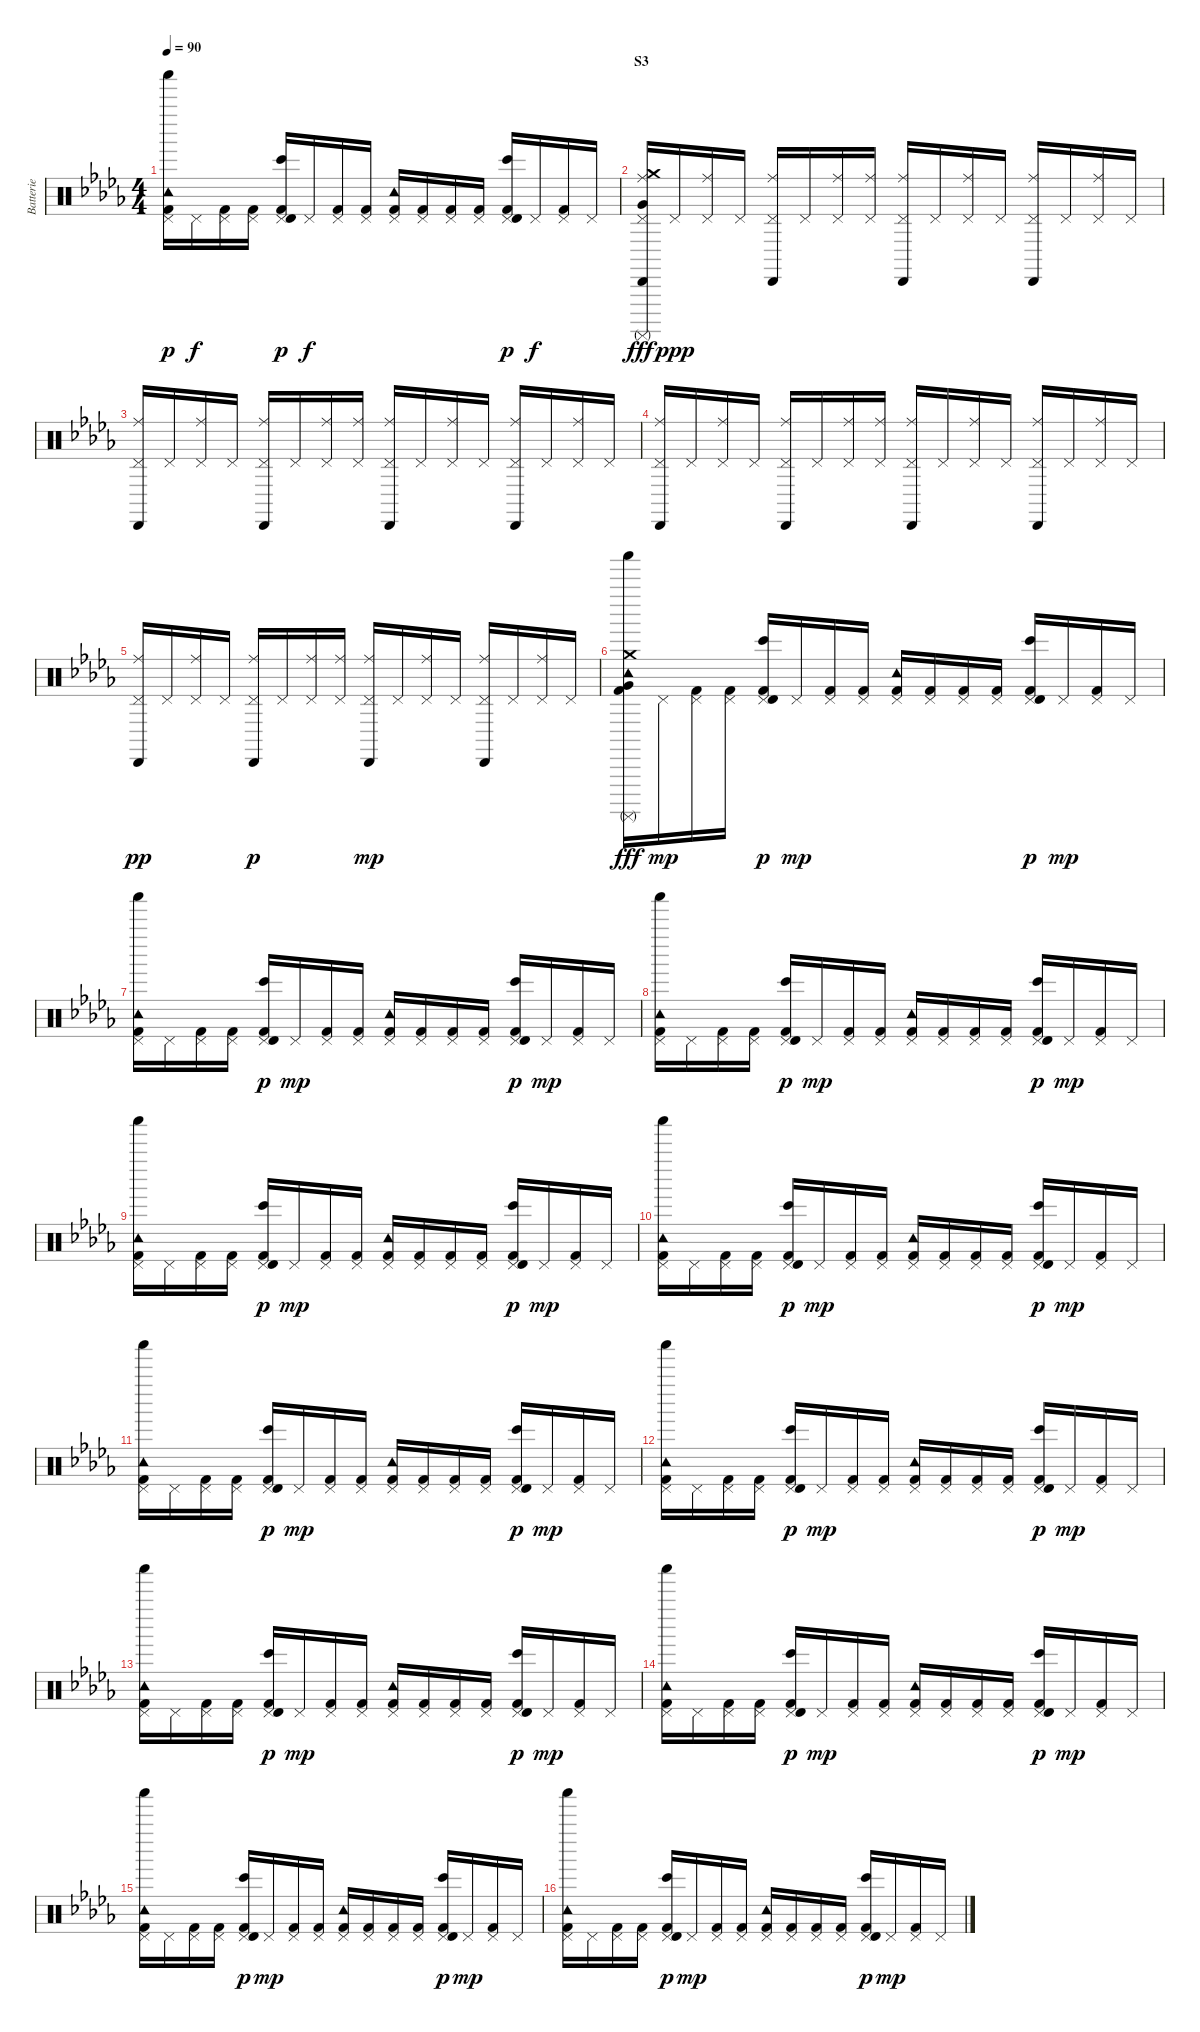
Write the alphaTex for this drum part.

\track ("Batterie" "Batterie") {instrument percussion}
\staff {score}
\articulation defaults
\ts (4 4)
\tempo 90
\clef neutral
\ks db
("Shaker (hit)" "Tambourine (hit)" "Pedal Hi-Hat (hit)" "Kick (hit) 2").16{dy p} "Pedal Hi-Hat (hit)".16{dy f} ("Pedal Hi-Hat (hit)" "Kick (hit) 2").16 ("Pedal Hi-Hat (hit)" "Kick (hit) 2").16 ("Pedal Hi-Hat (hit)" "Bongo High (hit)" "Timbale high (hit)" "Kick (hit) 2").16{dy p} "Pedal Hi-Hat (hit)".16{dy f} ("Pedal Hi-Hat (hit)" "Kick (hit) 2").16 ("Pedal Hi-Hat (hit)" "Kick (hit) 2").16 ("Tambourine (hit)" "Pedal Hi-Hat (hit)" "Kick (hit) 2").16 ("Pedal Hi-Hat (hit)" "Kick (hit) 2").16 ("Pedal Hi-Hat (hit)" "Kick (hit) 2").16 ("Pedal Hi-Hat (hit)" "Kick (hit) 2").16 ("Pedal Hi-Hat (hit)" "Bongo High (hit)" "Timbale high (hit)" "Kick (hit) 2").16{dy p} "Pedal Hi-Hat (hit)".16{dy f} ("Pedal Hi-Hat (hit)" "Kick (hit) 2").16 "Pedal Hi-Hat (hit)".16 |
\section ("" "S3")
("Crash medium (hit)" "Ride (middle)" "Cabasa (hit)" "Pedal Hi-Hat (hit)" "Surdo (mute)" "Very Low Tom (hit)").16{dy fff} "Pedal Hi-Hat (hit)".16{dy ppp} ("Ride (middle)" "Pedal Hi-Hat (hit)").16 "Pedal Hi-Hat (hit)".16 ("Ride (middle)" "Cabasa (hit)" "Pedal Hi-Hat (hit)").16 "Pedal Hi-Hat (hit)".16 ("Ride (middle)" "Pedal Hi-Hat (hit)").16 ("Ride (middle)" "Pedal Hi-Hat (hit)").16 ("Ride (middle)" "Cabasa (hit)" "Pedal Hi-Hat (hit)").16 "Pedal Hi-Hat (hit)".16 ("Ride (middle)" "Pedal Hi-Hat (hit)").16 "Pedal Hi-Hat (hit)".16 ("Ride (middle)" "Cabasa (hit)" "Pedal Hi-Hat (hit)").16 "Pedal Hi-Hat (hit)".16 ("Ride (middle)" "Pedal Hi-Hat (hit)").16 "Pedal Hi-Hat (hit)".16 |
("Ride (middle)" "Cabasa (hit)" "Pedal Hi-Hat (hit)").16 "Pedal Hi-Hat (hit)".16 ("Ride (middle)" "Pedal Hi-Hat (hit)").16 "Pedal Hi-Hat (hit)".16 ("Ride (middle)" "Cabasa (hit)" "Pedal Hi-Hat (hit)").16 "Pedal Hi-Hat (hit)".16 ("Ride (middle)" "Pedal Hi-Hat (hit)").16 ("Ride (middle)" "Pedal Hi-Hat (hit)").16 ("Ride (middle)" "Cabasa (hit)" "Pedal Hi-Hat (hit)").16 "Pedal Hi-Hat (hit)".16 ("Ride (middle)" "Pedal Hi-Hat (hit)").16 "Pedal Hi-Hat (hit)".16 ("Ride (middle)" "Cabasa (hit)" "Pedal Hi-Hat (hit)").16 "Pedal Hi-Hat (hit)".16 ("Ride (middle)" "Pedal Hi-Hat (hit)").16 "Pedal Hi-Hat (hit)".16 |
("Ride (middle)" "Cabasa (hit)" "Pedal Hi-Hat (hit)").16 "Pedal Hi-Hat (hit)".16 ("Ride (middle)" "Pedal Hi-Hat (hit)").16 "Pedal Hi-Hat (hit)".16 ("Ride (middle)" "Cabasa (hit)" "Pedal Hi-Hat (hit)").16 "Pedal Hi-Hat (hit)".16 ("Ride (middle)" "Pedal Hi-Hat (hit)").16 ("Ride (middle)" "Pedal Hi-Hat (hit)").16 ("Ride (middle)" "Cabasa (hit)" "Pedal Hi-Hat (hit)").16 "Pedal Hi-Hat (hit)".16 ("Ride (middle)" "Pedal Hi-Hat (hit)").16 "Pedal Hi-Hat (hit)".16 ("Ride (middle)" "Cabasa (hit)" "Pedal Hi-Hat (hit)").16 "Pedal Hi-Hat (hit)".16 ("Ride (middle)" "Pedal Hi-Hat (hit)").16 "Pedal Hi-Hat (hit)".16 |
("Ride (middle)" "Cabasa (hit)" "Pedal Hi-Hat (hit)").16{dy pp} "Pedal Hi-Hat (hit)".16 ("Ride (middle)" "Pedal Hi-Hat (hit)").16 "Pedal Hi-Hat (hit)".16 ("Ride (middle)" "Cabasa (hit)" "Pedal Hi-Hat (hit)").16{dy p} "Pedal Hi-Hat (hit)".16 ("Ride (middle)" "Pedal Hi-Hat (hit)").16 ("Ride (middle)" "Pedal Hi-Hat (hit)").16 ("Ride (middle)" "Cabasa (hit)" "Pedal Hi-Hat (hit)").16{dy mp} "Pedal Hi-Hat (hit)".16 ("Ride (middle)" "Pedal Hi-Hat (hit)").16 "Pedal Hi-Hat (hit)".16 ("Ride (middle)" "Cabasa (hit)" "Pedal Hi-Hat (hit)").16 "Pedal Hi-Hat (hit)".16 ("Ride (middle)" "Pedal Hi-Hat (hit)").16 "Pedal Hi-Hat (hit)".16 |
("Crash medium (hit)" "Tambourine (hit)" "Shaker (hit)" "Surdo (mute)" "Kick (hit) 2" "Very Low Tom (hit)").16{dy fff} "Pedal Hi-Hat (hit)".16{dy mp} ("Pedal Hi-Hat (hit)" "Kick (hit) 2").16 ("Pedal Hi-Hat (hit)" "Kick (hit) 2").16 ("Pedal Hi-Hat (hit)" "Bongo High (hit)" "Timbale high (hit)" "Kick (hit) 2").16{dy p} "Pedal Hi-Hat (hit)".16{dy mp} ("Pedal Hi-Hat (hit)" "Kick (hit) 2").16 ("Pedal Hi-Hat (hit)" "Kick (hit) 2").16 ("Tambourine (hit)" "Pedal Hi-Hat (hit)" "Kick (hit) 2").16 ("Pedal Hi-Hat (hit)" "Kick (hit) 2").16 ("Pedal Hi-Hat (hit)" "Kick (hit) 2").16 ("Pedal Hi-Hat (hit)" "Kick (hit) 2").16 ("Pedal Hi-Hat (hit)" "Bongo High (hit)" "Timbale high (hit)" "Kick (hit) 2").16{dy p} "Pedal Hi-Hat (hit)".16{dy mp} ("Pedal Hi-Hat (hit)" "Kick (hit) 2").16 "Pedal Hi-Hat (hit)".16 |
("Shaker (hit)" "Tambourine (hit)" "Pedal Hi-Hat (hit)" "Kick (hit) 2").16 "Pedal Hi-Hat (hit)".16 ("Pedal Hi-Hat (hit)" "Kick (hit) 2").16 ("Pedal Hi-Hat (hit)" "Kick (hit) 2").16 ("Pedal Hi-Hat (hit)" "Bongo High (hit)" "Timbale high (hit)" "Kick (hit) 2").16{dy p} "Pedal Hi-Hat (hit)".16{dy mp} ("Pedal Hi-Hat (hit)" "Kick (hit) 2").16 ("Pedal Hi-Hat (hit)" "Kick (hit) 2").16 ("Tambourine (hit)" "Pedal Hi-Hat (hit)" "Kick (hit) 2").16 ("Pedal Hi-Hat (hit)" "Kick (hit) 2").16 ("Pedal Hi-Hat (hit)" "Kick (hit) 2").16 ("Pedal Hi-Hat (hit)" "Kick (hit) 2").16 ("Pedal Hi-Hat (hit)" "Bongo High (hit)" "Timbale high (hit)" "Kick (hit) 2").16{dy p} "Pedal Hi-Hat (hit)".16{dy mp} ("Pedal Hi-Hat (hit)" "Kick (hit) 2").16 "Pedal Hi-Hat (hit)".16 |
("Shaker (hit)" "Tambourine (hit)" "Pedal Hi-Hat (hit)" "Kick (hit) 2").16 "Pedal Hi-Hat (hit)".16 ("Pedal Hi-Hat (hit)" "Kick (hit) 2").16 ("Pedal Hi-Hat (hit)" "Kick (hit) 2").16 ("Pedal Hi-Hat (hit)" "Bongo High (hit)" "Timbale high (hit)" "Kick (hit) 2").16{dy p} "Pedal Hi-Hat (hit)".16{dy mp} ("Pedal Hi-Hat (hit)" "Kick (hit) 2").16 ("Pedal Hi-Hat (hit)" "Kick (hit) 2").16 ("Tambourine (hit)" "Pedal Hi-Hat (hit)" "Kick (hit) 2").16 ("Pedal Hi-Hat (hit)" "Kick (hit) 2").16 ("Pedal Hi-Hat (hit)" "Kick (hit) 2").16 ("Pedal Hi-Hat (hit)" "Kick (hit) 2").16 ("Pedal Hi-Hat (hit)" "Bongo High (hit)" "Timbale high (hit)" "Kick (hit) 2").16{dy p} "Pedal Hi-Hat (hit)".16{dy mp} ("Pedal Hi-Hat (hit)" "Kick (hit) 2").16 "Pedal Hi-Hat (hit)".16 |
("Shaker (hit)" "Tambourine (hit)" "Pedal Hi-Hat (hit)" "Kick (hit) 2").16 "Pedal Hi-Hat (hit)".16 ("Pedal Hi-Hat (hit)" "Kick (hit) 2").16 ("Pedal Hi-Hat (hit)" "Kick (hit) 2").16 ("Pedal Hi-Hat (hit)" "Bongo High (hit)" "Timbale high (hit)" "Kick (hit) 2").16{dy p} "Pedal Hi-Hat (hit)".16{dy mp} ("Pedal Hi-Hat (hit)" "Kick (hit) 2").16 ("Pedal Hi-Hat (hit)" "Kick (hit) 2").16 ("Tambourine (hit)" "Pedal Hi-Hat (hit)" "Kick (hit) 2").16 ("Pedal Hi-Hat (hit)" "Kick (hit) 2").16 ("Pedal Hi-Hat (hit)" "Kick (hit) 2").16 ("Pedal Hi-Hat (hit)" "Kick (hit) 2").16 ("Pedal Hi-Hat (hit)" "Bongo High (hit)" "Timbale high (hit)" "Kick (hit) 2").16{dy p} "Pedal Hi-Hat (hit)".16{dy mp} ("Pedal Hi-Hat (hit)" "Kick (hit) 2").16 "Pedal Hi-Hat (hit)".16 |
("Shaker (hit)" "Tambourine (hit)" "Pedal Hi-Hat (hit)" "Kick (hit) 2").16 "Pedal Hi-Hat (hit)".16 ("Pedal Hi-Hat (hit)" "Kick (hit) 2").16 ("Pedal Hi-Hat (hit)" "Kick (hit) 2").16 ("Pedal Hi-Hat (hit)" "Bongo High (hit)" "Timbale high (hit)" "Kick (hit) 2").16{dy p} "Pedal Hi-Hat (hit)".16{dy mp} ("Pedal Hi-Hat (hit)" "Kick (hit) 2").16 ("Pedal Hi-Hat (hit)" "Kick (hit) 2").16 ("Tambourine (hit)" "Pedal Hi-Hat (hit)" "Kick (hit) 2").16 ("Pedal Hi-Hat (hit)" "Kick (hit) 2").16 ("Pedal Hi-Hat (hit)" "Kick (hit) 2").16 ("Pedal Hi-Hat (hit)" "Kick (hit) 2").16 ("Pedal Hi-Hat (hit)" "Bongo High (hit)" "Timbale high (hit)" "Kick (hit) 2").16{dy p} "Pedal Hi-Hat (hit)".16{dy mp} ("Pedal Hi-Hat (hit)" "Kick (hit) 2").16 "Pedal Hi-Hat (hit)".16 |
("Shaker (hit)" "Tambourine (hit)" "Pedal Hi-Hat (hit)" "Kick (hit) 2").16 "Pedal Hi-Hat (hit)".16 ("Pedal Hi-Hat (hit)" "Kick (hit) 2").16 ("Pedal Hi-Hat (hit)" "Kick (hit) 2").16 ("Pedal Hi-Hat (hit)" "Bongo High (hit)" "Timbale high (hit)" "Kick (hit) 2").16{dy p} "Pedal Hi-Hat (hit)".16{dy mp} ("Pedal Hi-Hat (hit)" "Kick (hit) 2").16 ("Pedal Hi-Hat (hit)" "Kick (hit) 2").16 ("Tambourine (hit)" "Pedal Hi-Hat (hit)" "Kick (hit) 2").16 ("Pedal Hi-Hat (hit)" "Kick (hit) 2").16 ("Pedal Hi-Hat (hit)" "Kick (hit) 2").16 ("Pedal Hi-Hat (hit)" "Kick (hit) 2").16 ("Pedal Hi-Hat (hit)" "Bongo High (hit)" "Timbale high (hit)" "Kick (hit) 2").16{dy p} "Pedal Hi-Hat (hit)".16{dy mp} ("Pedal Hi-Hat (hit)" "Kick (hit) 2").16 "Pedal Hi-Hat (hit)".16 |
("Shaker (hit)" "Tambourine (hit)" "Pedal Hi-Hat (hit)" "Kick (hit) 2").16 "Pedal Hi-Hat (hit)".16 ("Pedal Hi-Hat (hit)" "Kick (hit) 2").16 ("Pedal Hi-Hat (hit)" "Kick (hit) 2").16 ("Pedal Hi-Hat (hit)" "Bongo High (hit)" "Timbale high (hit)" "Kick (hit) 2").16{dy p} "Pedal Hi-Hat (hit)".16{dy mp} ("Pedal Hi-Hat (hit)" "Kick (hit) 2").16 ("Pedal Hi-Hat (hit)" "Kick (hit) 2").16 ("Tambourine (hit)" "Pedal Hi-Hat (hit)" "Kick (hit) 2").16 ("Pedal Hi-Hat (hit)" "Kick (hit) 2").16 ("Pedal Hi-Hat (hit)" "Kick (hit) 2").16 ("Pedal Hi-Hat (hit)" "Kick (hit) 2").16 ("Pedal Hi-Hat (hit)" "Bongo High (hit)" "Timbale high (hit)" "Kick (hit) 2").16{dy p} "Pedal Hi-Hat (hit)".16{dy mp} ("Pedal Hi-Hat (hit)" "Kick (hit) 2").16 "Pedal Hi-Hat (hit)".16 |
("Shaker (hit)" "Tambourine (hit)" "Pedal Hi-Hat (hit)" "Kick (hit) 2").16 "Pedal Hi-Hat (hit)".16 ("Pedal Hi-Hat (hit)" "Kick (hit) 2").16 ("Pedal Hi-Hat (hit)" "Kick (hit) 2").16 ("Pedal Hi-Hat (hit)" "Bongo High (hit)" "Timbale high (hit)" "Kick (hit) 2").16{dy p} "Pedal Hi-Hat (hit)".16{dy mp} ("Pedal Hi-Hat (hit)" "Kick (hit) 2").16 ("Pedal Hi-Hat (hit)" "Kick (hit) 2").16 ("Tambourine (hit)" "Pedal Hi-Hat (hit)" "Kick (hit) 2").16 ("Pedal Hi-Hat (hit)" "Kick (hit) 2").16 ("Pedal Hi-Hat (hit)" "Kick (hit) 2").16 ("Pedal Hi-Hat (hit)" "Kick (hit) 2").16 ("Pedal Hi-Hat (hit)" "Bongo High (hit)" "Timbale high (hit)" "Kick (hit) 2").16{dy p} "Pedal Hi-Hat (hit)".16{dy mp} ("Pedal Hi-Hat (hit)" "Kick (hit) 2").16 "Pedal Hi-Hat (hit)".16 |
("Shaker (hit)" "Tambourine (hit)" "Pedal Hi-Hat (hit)" "Kick (hit) 2").16 "Pedal Hi-Hat (hit)".16 ("Pedal Hi-Hat (hit)" "Kick (hit) 2").16 ("Pedal Hi-Hat (hit)" "Kick (hit) 2").16 ("Pedal Hi-Hat (hit)" "Bongo High (hit)" "Timbale high (hit)" "Kick (hit) 2").16{dy p} "Pedal Hi-Hat (hit)".16{dy mp} ("Pedal Hi-Hat (hit)" "Kick (hit) 2").16 ("Pedal Hi-Hat (hit)" "Kick (hit) 2").16 ("Tambourine (hit)" "Pedal Hi-Hat (hit)" "Kick (hit) 2").16 ("Pedal Hi-Hat (hit)" "Kick (hit) 2").16 ("Pedal Hi-Hat (hit)" "Kick (hit) 2").16 ("Pedal Hi-Hat (hit)" "Kick (hit) 2").16 ("Pedal Hi-Hat (hit)" "Bongo High (hit)" "Timbale high (hit)" "Kick (hit) 2").16{dy p} "Pedal Hi-Hat (hit)".16{dy mp} ("Pedal Hi-Hat (hit)" "Kick (hit) 2").16 "Pedal Hi-Hat (hit)".16 |
("Shaker (hit)" "Tambourine (hit)" "Pedal Hi-Hat (hit)" "Kick (hit) 2").16 "Pedal Hi-Hat (hit)".16 ("Pedal Hi-Hat (hit)" "Kick (hit) 2").16 ("Pedal Hi-Hat (hit)" "Kick (hit) 2").16 ("Pedal Hi-Hat (hit)" "Bongo High (hit)" "Timbale high (hit)" "Kick (hit) 2").16{dy p} "Pedal Hi-Hat (hit)".16{dy mp} ("Pedal Hi-Hat (hit)" "Kick (hit) 2").16 ("Pedal Hi-Hat (hit)" "Kick (hit) 2").16 ("Tambourine (hit)" "Pedal Hi-Hat (hit)" "Kick (hit) 2").16 ("Pedal Hi-Hat (hit)" "Kick (hit) 2").16 ("Pedal Hi-Hat (hit)" "Kick (hit) 2").16 ("Pedal Hi-Hat (hit)" "Kick (hit) 2").16 ("Pedal Hi-Hat (hit)" "Bongo High (hit)" "Timbale high (hit)" "Kick (hit) 2").16{dy p} "Pedal Hi-Hat (hit)".16{dy mp} ("Pedal Hi-Hat (hit)" "Kick (hit) 2").16 "Pedal Hi-Hat (hit)".16 |
("Shaker (hit)" "Tambourine (hit)" "Pedal Hi-Hat (hit)" "Kick (hit) 2").16 "Pedal Hi-Hat (hit)".16 ("Pedal Hi-Hat (hit)" "Kick (hit) 2").16 ("Pedal Hi-Hat (hit)" "Kick (hit) 2").16 ("Pedal Hi-Hat (hit)" "Bongo High (hit)" "Timbale high (hit)" "Kick (hit) 2").16{dy p} "Pedal Hi-Hat (hit)".16{dy mp} ("Pedal Hi-Hat (hit)" "Kick (hit) 2").16 ("Pedal Hi-Hat (hit)" "Kick (hit) 2").16 ("Tambourine (hit)" "Pedal Hi-Hat (hit)" "Kick (hit) 2").16 ("Pedal Hi-Hat (hit)" "Kick (hit) 2").16 ("Pedal Hi-Hat (hit)" "Kick (hit) 2").16 ("Pedal Hi-Hat (hit)" "Kick (hit) 2").16 ("Pedal Hi-Hat (hit)" "Bongo High (hit)" "Timbale high (hit)" "Kick (hit) 2").16{dy p} "Pedal Hi-Hat (hit)".16{dy mp} ("Pedal Hi-Hat (hit)" "Kick (hit) 2").16 "Pedal Hi-Hat (hit)".16
